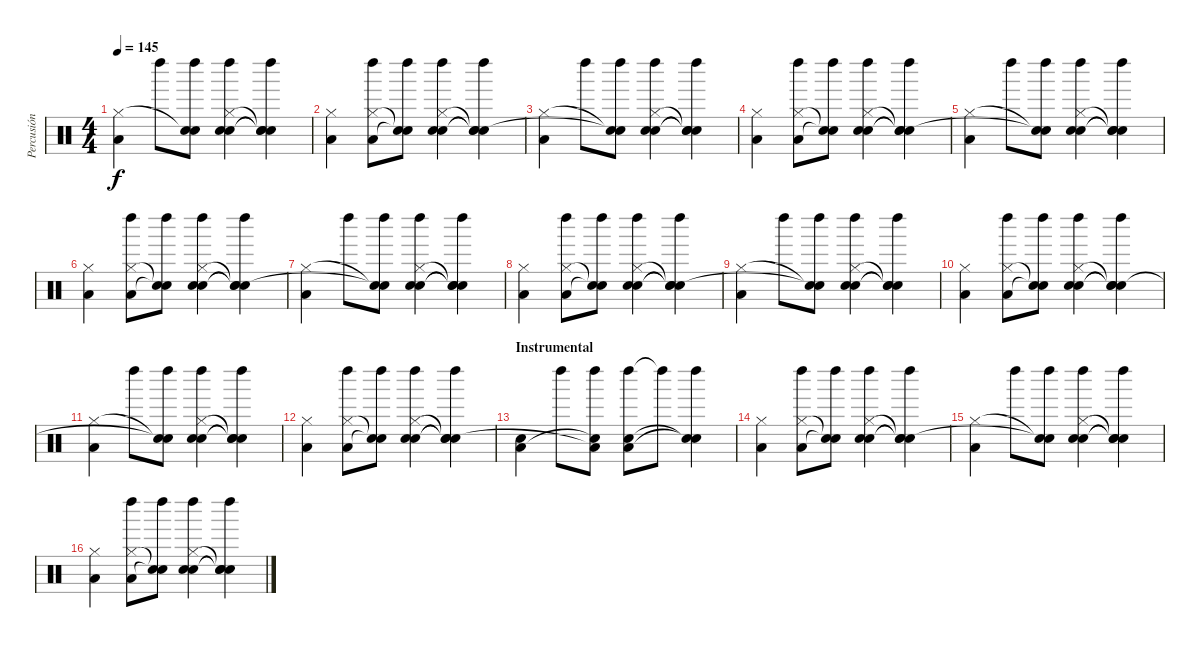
\track ("Percusión" "Percusión") {instrument percussion}
\staff {score}
\articulation defaults
\ts (4 4)
\tempo 145
\clef neutral
\ks c
("Low Floor Tom (hit)" "Hi-Hat (closed)").4{dy f} "Left Maraca (hit)".8 ("Left Maraca (hit)" "Snare (hit)"{t} "Snare (hit)"{t}).8 ("Left Maraca (hit)" "Electric Snare (hit)" "Hi-Hat (closed)" "Snare (hit) 2").4 ("Left Maraca (hit)" "Snare (hit)"{t} "Snare (hit)"{t} "Snare (hit)"{t}).4 |
("Low Floor Tom (hit)" "Hi-Hat (closed)").4 ("Left Maraca (hit)" "Low Floor Tom (hit)" "Hi-Hat (closed)").8 ("Left Maraca (hit)" "Snare (hit)"{t} "Snare (hit)"{t}).8 ("Left Maraca (hit)" "Electric Snare (hit)" "Hi-Hat (closed)" "Snare (hit) 2").4 ("Left Maraca (hit)" "Snare (hit)"{t} "Snare (hit)"{t} "Snare (hit)"{t}).4 |
("Low Floor Tom (hit)" "Hi-Hat (closed)").4 "Left Maraca (hit)".8 ("Left Maraca (hit)" "Snare (hit)"{t} "Snare (hit)"{t}).8 ("Left Maraca (hit)" "Electric Snare (hit)" "Hi-Hat (closed)" "Snare (hit) 2").4 ("Left Maraca (hit)" "Snare (hit)"{t} "Snare (hit)"{t} "Snare (hit)"{t}).4 |
("Low Floor Tom (hit)" "Hi-Hat (closed)").4 ("Left Maraca (hit)" "Low Floor Tom (hit)" "Hi-Hat (closed)").8 ("Left Maraca (hit)" "Snare (hit)"{t} "Snare (hit)"{t}).8 ("Left Maraca (hit)" "Electric Snare (hit)" "Hi-Hat (closed)" "Snare (hit) 2").4 ("Left Maraca (hit)" "Snare (hit)"{t} "Snare (hit)"{t} "Snare (hit)"{t}).4 |
("Low Floor Tom (hit)" "Hi-Hat (closed)").4 "Left Maraca (hit)".8 ("Left Maraca (hit)" "Snare (hit)"{t} "Snare (hit)"{t}).8 ("Left Maraca (hit)" "Electric Snare (hit)" "Hi-Hat (closed)" "Snare (hit) 2").4 ("Left Maraca (hit)" "Snare (hit)"{t} "Snare (hit)"{t} "Snare (hit)"{t}).4 |
("Low Floor Tom (hit)" "Hi-Hat (closed)").4 ("Left Maraca (hit)" "Low Floor Tom (hit)" "Hi-Hat (closed)").8 ("Left Maraca (hit)" "Snare (hit)"{t} "Snare (hit)"{t}).8 ("Left Maraca (hit)" "Electric Snare (hit)" "Hi-Hat (closed)" "Snare (hit) 2").4 ("Left Maraca (hit)" "Snare (hit)"{t} "Snare (hit)"{t} "Snare (hit)"{t}).4 |
("Low Floor Tom (hit)" "Hi-Hat (closed)").4 "Left Maraca (hit)".8 ("Left Maraca (hit)" "Snare (hit)"{t} "Snare (hit)"{t}).8 ("Left Maraca (hit)" "Electric Snare (hit)" "Hi-Hat (closed)" "Snare (hit) 2").4 ("Left Maraca (hit)" "Snare (hit)"{t} "Snare (hit)"{t} "Snare (hit)"{t}).4 |
("Low Floor Tom (hit)" "Hi-Hat (closed)").4 ("Left Maraca (hit)" "Low Floor Tom (hit)" "Hi-Hat (closed)").8 ("Left Maraca (hit)" "Snare (hit)"{t} "Snare (hit)"{t}).8 ("Left Maraca (hit)" "Electric Snare (hit)" "Hi-Hat (closed)" "Snare (hit) 2").4 ("Left Maraca (hit)" "Snare (hit)"{t} "Snare (hit)"{t} "Snare (hit)"{t}).4 |
("Low Floor Tom (hit)" "Hi-Hat (closed)").4 "Left Maraca (hit)".8 ("Left Maraca (hit)" "Snare (hit)"{t} "Snare (hit)"{t}).8 ("Left Maraca (hit)" "Electric Snare (hit)" "Hi-Hat (closed)" "Snare (hit) 2").4 ("Left Maraca (hit)" "Snare (hit)"{t} "Snare (hit)"{t} "Snare (hit)"{t}).4 |
("Low Floor Tom (hit)" "Hi-Hat (closed)").4 ("Left Maraca (hit)" "Low Floor Tom (hit)" "Hi-Hat (closed)").8 ("Left Maraca (hit)" "Snare (hit)"{t} "Snare (hit)"{t}).8 ("Left Maraca (hit)" "Electric Snare (hit)" "Hi-Hat (closed)" "Snare (hit) 2").4 ("Left Maraca (hit)" "Snare (hit)"{t} "Snare (hit)"{t} "Snare (hit)"{t}).4 |
("Low Floor Tom (hit)" "Hi-Hat (closed)").4 "Left Maraca (hit)".8 ("Left Maraca (hit)" "Snare (hit)"{t} "Snare (hit)"{t}).8 ("Left Maraca (hit)" "Electric Snare (hit)" "Hi-Hat (closed)" "Snare (hit) 2").4 ("Left Maraca (hit)" "Snare (hit)"{t} "Snare (hit)"{t} "Snare (hit)"{t}).4 |
("Low Floor Tom (hit)" "Hi-Hat (closed)").4 ("Left Maraca (hit)" "Low Floor Tom (hit)" "Hi-Hat (closed)").8 ("Left Maraca (hit)" "Snare (hit)"{t} "Snare (hit)"{t}).8 ("Left Maraca (hit)" "Electric Snare (hit)" "Hi-Hat (closed)" "Snare (hit) 2").4 ("Left Maraca (hit)" "Snare (hit)"{t} "Snare (hit)"{t} "Snare (hit)"{t}).4 |
\section ("" "Instrumental")
("Snare (hit) 2" "Low Floor Tom (hit)").4 "Left Maraca (hit)".8 ("Left Maraca (hit)" "Snare (hit)"{t} "Low Floor Tom (hit)"{t}).8 ("Left Maraca (hit)" "Snare (hit) 2" "Low Floor Tom (hit)").8 "Left Maraca (hit)"{t}.8 ("Left Maraca (hit)" "Snare (hit)"{t} "Snare (hit)"{t}).4 |
("Low Floor Tom (hit)" "Hi-Hat (closed)").4 ("Left Maraca (hit)" "Low Floor Tom (hit)" "Hi-Hat (closed)").8 ("Left Maraca (hit)" "Snare (hit)"{t} "Snare (hit)"{t}).8 ("Left Maraca (hit)" "Electric Snare (hit)" "Hi-Hat (closed)" "Snare (hit) 2").4 ("Left Maraca (hit)" "Snare (hit)"{t} "Snare (hit)"{t} "Snare (hit)"{t}).4 |
("Low Floor Tom (hit)" "Hi-Hat (closed)").4 "Left Maraca (hit)".8 ("Left Maraca (hit)" "Snare (hit)"{t} "Snare (hit)"{t}).8 ("Left Maraca (hit)" "Electric Snare (hit)" "Hi-Hat (closed)" "Snare (hit) 2").4 ("Left Maraca (hit)" "Snare (hit)"{t} "Snare (hit)"{t} "Snare (hit)"{t}).4 |
("Low Floor Tom (hit)" "Hi-Hat (closed)").4 ("Left Maraca (hit)" "Low Floor Tom (hit)" "Hi-Hat (closed)").8 ("Left Maraca (hit)" "Snare (hit)"{t} "Snare (hit)"{t}).8 ("Left Maraca (hit)" "Electric Snare (hit)" "Hi-Hat (closed)" "Snare (hit) 2").4 ("Left Maraca (hit)" "Snare (hit)"{t} "Snare (hit)"{t} "Snare (hit)"{t}).4
